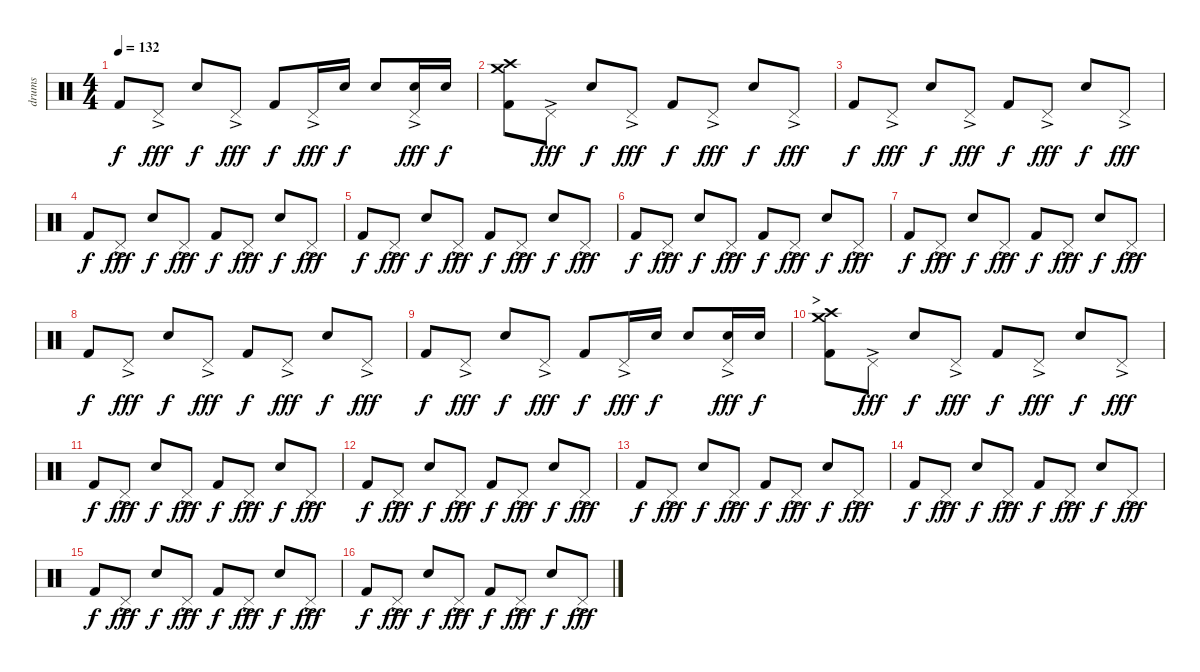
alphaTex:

\track ("drums" "drums") {instrument percussion}
\staff {score}
\articulation defaults
\ts (4 4)
\tempo 132
\clef neutral
\ks c "Kick (hit) 2".8{dy f} "Pedal Hi-Hat (hit)"{ac}.8{dy fff} "Snare (hit) 2".8{dy f} "Pedal Hi-Hat (hit)"{ac}.8{dy fff} "Kick (hit) 2".8{dy f} "Pedal Hi-Hat (hit)"{ac}.16{dy fff} "Snare (hit) 2".16{dy f} "Snare (hit) 2".8
("Pedal Hi-Hat (hit)"{ac} "Snare (hit) 2").16{dy fff} "Snare (hit) 2".16{dy f} |
("Kick (hit) 2" "Crash medium (hit)" "Crash high (hit)").8 "Pedal Hi-Hat (hit)"{ac}.8{dy fff} "Snare (hit) 2".8{dy f} "Pedal Hi-Hat (hit)"{ac}.8{dy fff} "Kick (hit) 2".8{dy f} "Pedal Hi-Hat (hit)"{ac}.8{dy fff} "Snare (hit) 2".8{dy f} "Pedal Hi-Hat (hit)"{ac}.8{dy fff} |
"Kick (hit) 2".8{dy f} "Pedal Hi-Hat (hit)"{ac}.8{dy fff} "Snare (hit) 2".8{dy f} "Pedal Hi-Hat (hit)"{ac}.8{dy fff} "Kick (hit) 2".8{dy f} "Pedal Hi-Hat (hit)"{ac}.8{dy fff} "Snare (hit) 2".8{dy f} "Pedal Hi-Hat (hit)"{ac}.8{dy fff} |
"Kick (hit) 2".8{dy f} "Pedal Hi-Hat (hit)"{ac}.8{dy fff} "Snare (hit) 2".8{dy f} "Pedal Hi-Hat (hit)"{ac}.8{dy fff} "Kick (hit) 2".8{dy f} "Pedal Hi-Hat (hit)"{ac}.8{dy fff} "Snare (hit) 2".8{dy f} "Pedal Hi-Hat (hit)"{ac}.8{dy fff} |
"Kick (hit) 2".8{dy f} "Pedal Hi-Hat (hit)"{ac}.8{dy fff} "Snare (hit) 2".8{dy f} "Pedal Hi-Hat (hit)"{ac}.8{dy fff} "Kick (hit) 2".8{dy f} "Pedal Hi-Hat (hit)"{ac}.8{dy fff} "Snare (hit) 2".8{dy f} "Pedal Hi-Hat (hit)"{ac}.8{dy fff} |
"Kick (hit) 2".8{dy f} "Pedal Hi-Hat (hit)"{ac}.8{dy fff} "Snare (hit) 2".8{dy f} "Pedal Hi-Hat (hit)"{ac}.8{dy fff} "Kick (hit) 2".8{dy f} "Pedal Hi-Hat (hit)"{ac}.8{dy fff} "Snare (hit) 2".8{dy f} "Pedal Hi-Hat (hit)"{ac}.8{dy fff} |
"Kick (hit) 2".8{dy f} "Pedal Hi-Hat (hit)"{ac}.8{dy fff} "Snare (hit) 2".8{dy f} "Pedal Hi-Hat (hit)"{ac}.8{dy fff} "Kick (hit) 2".8{dy f} "Pedal Hi-Hat (hit)"{ac}.8{dy fff} "Snare (hit) 2".8{dy f} "Pedal Hi-Hat (hit)"{ac}.8{dy fff} |
"Kick (hit) 2".8{dy f} "Pedal Hi-Hat (hit)"{ac}.8{dy fff} "Snare (hit) 2".8{dy f} "Pedal Hi-Hat (hit)"{ac}.8{dy fff} "Kick (hit) 2".8{dy f} "Pedal Hi-Hat (hit)"{ac}.8{dy fff} "Snare (hit) 2".8{dy f} "Pedal Hi-Hat (hit)"{ac}.8{dy fff} |
"Kick (hit) 2".8{dy f} "Pedal Hi-Hat (hit)"{ac}.8{dy fff} "Snare (hit) 2".8{dy f} "Pedal Hi-Hat (hit)"{ac}.8{dy fff} "Kick (hit) 2".8{dy f} "Pedal Hi-Hat (hit)"{ac}.16{dy fff} "Snare (hit) 2".16{dy f} "Snare (hit) 2".8 ("Pedal Hi-Hat (hit)"{ac} "Snare (hit) 2").16{dy fff} "Snare (hit) 2".16{dy f} |
\section ("" ">")
("Kick (hit) 2" "Crash medium (hit)" "Crash high (hit)").8 "Pedal Hi-Hat (hit)"{ac}.8{dy fff} "Snare (hit) 2".8{dy f} "Pedal Hi-Hat (hit)"{ac}.8{dy fff} "Kick (hit) 2".8{dy f} "Pedal Hi-Hat (hit)"{ac}.8{dy fff} "Snare (hit) 2".8{dy f} "Pedal Hi-Hat (hit)"{ac}.8{dy fff} |
"Kick (hit) 2".8{dy f} "Pedal Hi-Hat (hit)"{ac}.8{dy fff} "Snare (hit) 2".8{dy f} "Pedal Hi-Hat (hit)"{ac}.8{dy fff} "Kick (hit) 2".8{dy f} "Pedal Hi-Hat (hit)"{ac}.8{dy fff} "Snare (hit) 2".8{dy f} "Pedal Hi-Hat (hit)"{ac}.8{dy fff} |
"Kick (hit) 2".8{dy f} "Pedal Hi-Hat (hit)"{ac}.8{dy fff} "Snare (hit) 2".8{dy f} "Pedal Hi-Hat (hit)"{ac}.8{dy fff} "Kick (hit) 2".8{dy f} "Pedal Hi-Hat (hit)"{ac}.8{dy fff} "Snare (hit) 2".8{dy f} "Pedal Hi-Hat (hit)"{ac}.8{dy fff} |
"Kick (hit) 2".8{dy f} "Pedal Hi-Hat (hit)"{ac}.8{dy fff} "Snare (hit) 2".8{dy f} "Pedal Hi-Hat (hit)"{ac}.8{dy fff} "Kick (hit) 2".8{dy f} "Pedal Hi-Hat (hit)"{ac}.8{dy fff} "Snare (hit) 2".8{dy f} "Pedal Hi-Hat (hit)"{ac}.8{dy fff} |
"Kick (hit) 2".8{dy f} "Pedal Hi-Hat (hit)"{ac}.8{dy fff} "Snare (hit) 2".8{dy f} "Pedal Hi-Hat (hit)"{ac}.8{dy fff} "Kick (hit) 2".8{dy f} "Pedal Hi-Hat (hit)"{ac}.8{dy fff} "Snare (hit) 2".8{dy f} "Pedal Hi-Hat (hit)"{ac}.8{dy fff} |
"Kick (hit) 2".8{dy f} "Pedal Hi-Hat (hit)"{ac}.8{dy fff} "Snare (hit) 2".8{dy f} "Pedal Hi-Hat (hit)"{ac}.8{dy fff} "Kick (hit) 2".8{dy f} "Pedal Hi-Hat (hit)"{ac}.8{dy fff} "Snare (hit) 2".8{dy f} "Pedal Hi-Hat (hit)"{ac}.8{dy fff} |
"Kick (hit) 2".8{dy f} "Pedal Hi-Hat (hit)"{ac}.8{dy fff} "Snare (hit) 2".8{dy f} "Pedal Hi-Hat (hit)"{ac}.8{dy fff} "Kick (hit) 2".8{dy f} "Pedal Hi-Hat (hit)"{ac}.8{dy fff} "Snare (hit) 2".8{dy f} "Pedal Hi-Hat (hit)"{ac}.8{dy fff}
